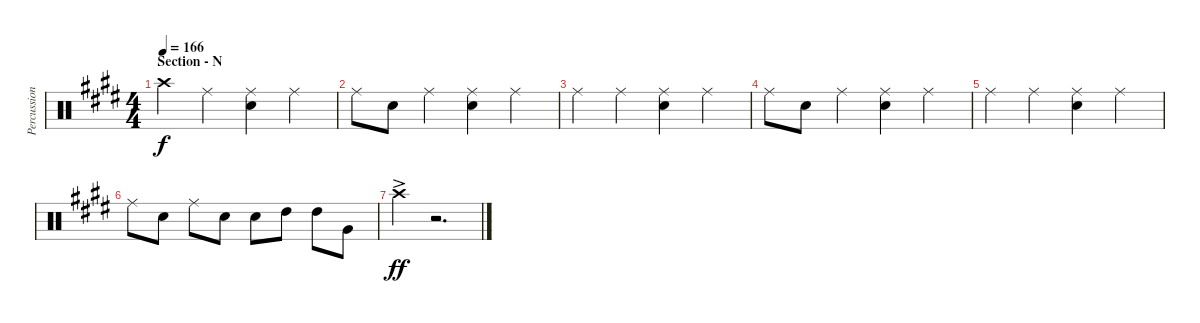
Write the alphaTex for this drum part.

\track ("Percussion - Other" "Percussion") {instrument percussion}
\staff {score}
\articulation defaults
\ts (4 4)
\section ("" "Section - N")
\tempo 166
\clef neutral
\ks e "Crash high (hit)".4{dy f} "Ride (middle)".4
("Ride (middle)" "Snare (hit) 2").4 "Ride (middle)".4 |
"Ride (middle)".8 "Snare (hit) 2".8 "Ride (middle)".4 ("Ride (middle)" "Snare (hit) 2").4 "Ride (middle)".4 |
"Ride (middle)".4 "Ride (middle)".4 ("Ride (middle)" "Snare (hit) 2").4 "Ride (middle)".4 |
"Ride (middle)".8 "Snare (hit) 2".8 "Ride (middle)".4 ("Ride (middle)" "Snare (hit) 2").4 "Ride (middle)".4 |
"Ride (middle)".4 "Ride (middle)".4 ("Ride (middle)" "Snare (hit) 2").4 "Ride (middle)".4 |
"Ride (middle)".8 "Snare (hit) 2".8 "Ride (middle)".8 "Snare (hit) 2".8 "Snare (hit) 2".8 "High Tom (hit)".8 "High Tom (hit)".8 "Very Low Tom (hit)".8 |
"Crash high (hit)"{ac}.4{dy ff} r.2{d}
